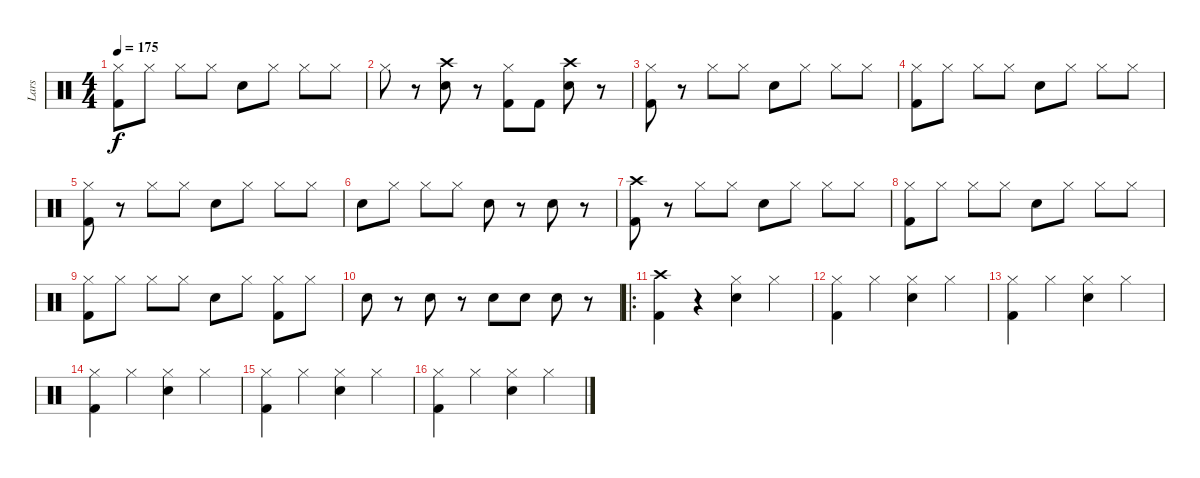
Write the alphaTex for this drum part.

\track ("Lars" "Lars") {instrument percussion}
\staff {score}
\articulation defaults
\ts (4 4)
\tempo 175
\clef neutral
\ks c
("Hi-Hat (closed)" "Kick (hit) 2").8{dy f} "Hi-Hat (closed)".8 "Hi-Hat (closed)".8 "Hi-Hat (closed)".8 "Electric Snare (hit)".8 "Hi-Hat (closed)".8 "Hi-Hat (closed)".8 "Hi-Hat (closed)".8 |
"Hi-Hat (closed)".8 r.8 ("Crash high (hit)" "Electric Snare (hit)").8 r.8 ("Hi-Hat (closed)" "Kick (hit) 2").8 "Kick (hit) 2".8 ("Crash high (hit)" "Electric Snare (hit)").8 r.8 |
("Hi-Hat (closed)" "Kick (hit) 2").8 r.8 "Hi-Hat (closed)".8 "Hi-Hat (closed)".8 "Electric Snare (hit)".8 "Hi-Hat (closed)".8 "Hi-Hat (closed)".8 "Hi-Hat (closed)".8 |
("Hi-Hat (closed)" "Kick (hit) 2").8 "Hi-Hat (closed)".8 "Hi-Hat (closed)".8 "Hi-Hat (closed)".8 "Electric Snare (hit)".8 "Hi-Hat (closed)".8 "Hi-Hat (closed)".8 "Hi-Hat (closed)".8 |
("Hi-Hat (closed)" "Kick (hit) 2").8 r.8 "Hi-Hat (closed)".8 "Hi-Hat (closed)".8 "Electric Snare (hit)".8 "Hi-Hat (closed)".8 "Hi-Hat (closed)".8 "Hi-Hat (closed)".8 |
"Electric Snare (hit)".8 "Hi-Hat (closed)".8 "Hi-Hat (closed)".8 "Hi-Hat (closed)".8 "Electric Snare (hit)".8 r.8 "Electric Snare (hit)".8 r.8 |
("Crash high (hit)" "Kick (hit) 2").8 r.8 "Hi-Hat (closed)".8 "Hi-Hat (closed)".8 "Electric Snare (hit)".8 "Hi-Hat (closed)".8 "Hi-Hat (closed)".8 "Hi-Hat (closed)".8 |
("Hi-Hat (closed)" "Kick (hit) 2").8 "Hi-Hat (closed)".8 "Hi-Hat (closed)".8 "Hi-Hat (closed)".8 "Electric Snare (hit)".8 "Hi-Hat (closed)".8 "Hi-Hat (closed)".8 "Hi-Hat (closed)".8 |
("Hi-Hat (closed)" "Kick (hit) 2").8 "Hi-Hat (closed)".8 "Hi-Hat (closed)".8 "Hi-Hat (closed)".8 "Electric Snare (hit)".8 "Hi-Hat (closed)".8 ("Hi-Hat (closed)" "Kick (hit) 2").8 "Hi-Hat (closed)".8 |
"Electric Snare (hit)".8 r.8 "Electric Snare (hit)".8 r.8 "Electric Snare (hit)".8 "Electric Snare (hit)".8 "Electric Snare (hit)".8 r.8 |
\ro
("Crash high (hit)" "Kick (hit) 2").4 r.4 ("Hi-Hat (closed)" "Electric Snare (hit)").4 "Hi-Hat (closed)".4 |
("Hi-Hat (closed)" "Kick (hit) 2").4 "Hi-Hat (closed)".4 ("Hi-Hat (closed)" "Electric Snare (hit)").4 "Hi-Hat (closed)".4 |
("Hi-Hat (closed)" "Kick (hit) 2").4 "Hi-Hat (closed)".4 ("Hi-Hat (closed)" "Electric Snare (hit)").4 "Hi-Hat (closed)".4 |
("Hi-Hat (closed)" "Kick (hit) 2").4 "Hi-Hat (closed)".4 ("Hi-Hat (closed)" "Electric Snare (hit)").4 "Hi-Hat (closed)".4 |
("Hi-Hat (closed)" "Kick (hit) 2").4 "Hi-Hat (closed)".4 ("Hi-Hat (closed)" "Electric Snare (hit)").4 "Hi-Hat (closed)".4 |
("Hi-Hat (closed)" "Kick (hit) 2").4 "Hi-Hat (closed)".4 ("Hi-Hat (closed)" "Electric Snare (hit)").4 "Hi-Hat (closed)".4
